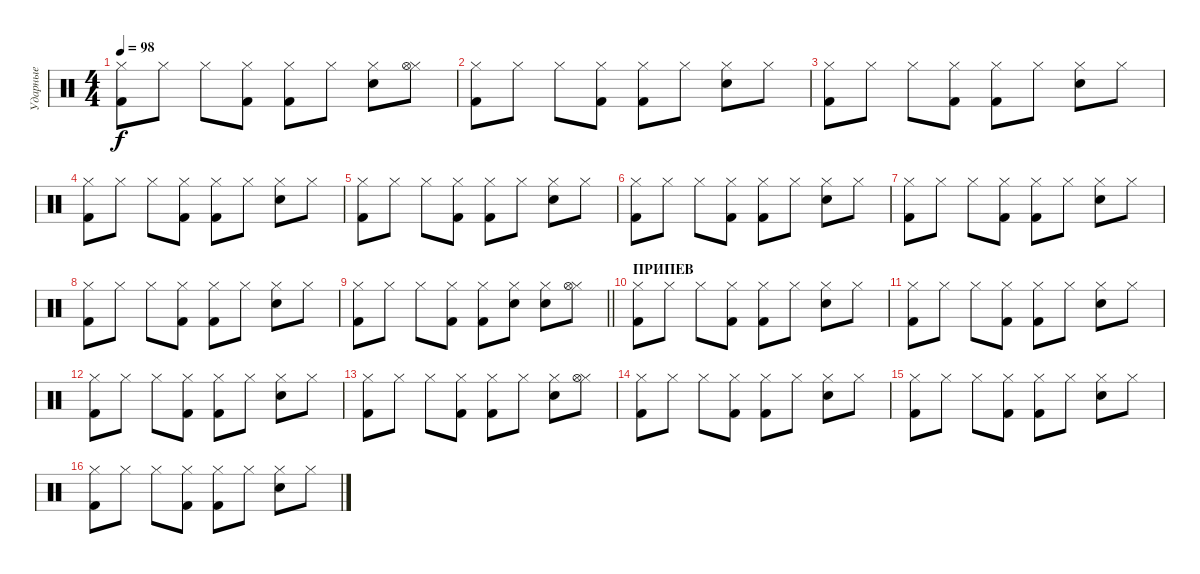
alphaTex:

\track ("Ударные" "Ударные") {instrument percussion}
\staff {score}
\articulation defaults
\ts (4 4)
\tempo 98
\clef neutral
\ks c
("Hi-Hat (closed)" "Kick (hit) 2").8{dy f} "Hi-Hat (closed)".8 "Hi-Hat (closed)".8 ("Hi-Hat (closed)" "Kick (hit) 2").8 ("Hi-Hat (closed)" "Kick (hit) 2").8 "Hi-Hat (closed)".8 ("Hi-Hat (closed)" "Snare (hit) 2").8 ("Hi-Hat (closed)" "Hi-Hat (open)").8 |
("Hi-Hat (closed)" "Kick (hit) 2").8 "Hi-Hat (closed)".8 "Hi-Hat (closed)".8 ("Hi-Hat (closed)" "Kick (hit) 2").8 ("Hi-Hat (closed)" "Kick (hit) 2").8 "Hi-Hat (closed)".8 ("Hi-Hat (closed)" "Snare (hit) 2").8 "Hi-Hat (closed)".8 |
("Hi-Hat (closed)" "Kick (hit) 2").8 "Hi-Hat (closed)".8 "Hi-Hat (closed)".8 ("Hi-Hat (closed)" "Kick (hit) 2").8 ("Hi-Hat (closed)" "Kick (hit) 2").8 "Hi-Hat (closed)".8 ("Hi-Hat (closed)" "Snare (hit) 2").8 "Hi-Hat (closed)".8 |
("Hi-Hat (closed)" "Kick (hit) 2").8 "Hi-Hat (closed)".8 "Hi-Hat (closed)".8 ("Hi-Hat (closed)" "Kick (hit) 2").8 ("Hi-Hat (closed)" "Kick (hit) 2").8 "Hi-Hat (closed)".8 ("Hi-Hat (closed)" "Snare (hit) 2").8 "Hi-Hat (closed)".8 |
("Hi-Hat (closed)" "Kick (hit) 2").8 "Hi-Hat (closed)".8 "Hi-Hat (closed)".8 ("Hi-Hat (closed)" "Kick (hit) 2").8 ("Hi-Hat (closed)" "Kick (hit) 2").8 "Hi-Hat (closed)".8 ("Hi-Hat (closed)" "Snare (hit) 2").8 "Hi-Hat (closed)".8 |
("Hi-Hat (closed)" "Kick (hit) 2").8 "Hi-Hat (closed)".8 "Hi-Hat (closed)".8 ("Hi-Hat (closed)" "Kick (hit) 2").8 ("Hi-Hat (closed)" "Kick (hit) 2").8 "Hi-Hat (closed)".8 ("Hi-Hat (closed)" "Snare (hit) 2").8 "Hi-Hat (closed)".8 |
("Hi-Hat (closed)" "Kick (hit) 2").8 "Hi-Hat (closed)".8 "Hi-Hat (closed)".8 ("Hi-Hat (closed)" "Kick (hit) 2").8 ("Hi-Hat (closed)" "Kick (hit) 2").8 "Hi-Hat (closed)".8 ("Hi-Hat (closed)" "Snare (hit) 2").8 "Hi-Hat (closed)".8 |
("Hi-Hat (closed)" "Kick (hit) 2").8 "Hi-Hat (closed)".8 "Hi-Hat (closed)".8 ("Hi-Hat (closed)" "Kick (hit) 2").8 ("Hi-Hat (closed)" "Kick (hit) 2").8 "Hi-Hat (closed)".8 ("Hi-Hat (closed)" "Snare (hit) 2").8 "Hi-Hat (closed)".8 |
\barLineRight lightlight
("Hi-Hat (closed)" "Kick (hit) 2").8 "Hi-Hat (closed)".8 "Hi-Hat (closed)".8 ("Hi-Hat (closed)" "Kick (hit) 2").8 ("Hi-Hat (closed)" "Kick (hit) 2").8 ("Hi-Hat (closed)" "Snare (hit) 2").8 ("Hi-Hat (closed)" "Snare (hit) 2").8 ("Hi-Hat (closed)" "Hi-Hat (open)").8 |
\section ("" "ПРИПЕВ")
("Hi-Hat (closed)" "Kick (hit) 2").8 "Hi-Hat (closed)".8 "Hi-Hat (closed)".8 ("Hi-Hat (closed)" "Kick (hit) 2").8 ("Hi-Hat (closed)" "Kick (hit) 2").8 "Hi-Hat (closed)".8 ("Hi-Hat (closed)" "Snare (hit) 2").8 "Hi-Hat (closed)".8 |
("Hi-Hat (closed)" "Kick (hit) 2").8 "Hi-Hat (closed)".8 "Hi-Hat (closed)".8 ("Hi-Hat (closed)" "Kick (hit) 2").8 ("Hi-Hat (closed)" "Kick (hit) 2").8 "Hi-Hat (closed)".8 ("Hi-Hat (closed)" "Snare (hit) 2").8 "Hi-Hat (closed)".8 |
("Hi-Hat (closed)" "Kick (hit) 2").8 "Hi-Hat (closed)".8 "Hi-Hat (closed)".8 ("Hi-Hat (closed)" "Kick (hit) 2").8 ("Hi-Hat (closed)" "Kick (hit) 2").8 "Hi-Hat (closed)".8 ("Hi-Hat (closed)" "Snare (hit) 2").8 "Hi-Hat (closed)".8 |
("Hi-Hat (closed)" "Kick (hit) 2").8 "Hi-Hat (closed)".8 "Hi-Hat (closed)".8 ("Hi-Hat (closed)" "Kick (hit) 2").8 ("Hi-Hat (closed)" "Kick (hit) 2").8 "Hi-Hat (closed)".8 ("Hi-Hat (closed)" "Snare (hit) 2").8 ("Hi-Hat (closed)" "Hi-Hat (open)").8 |
("Hi-Hat (closed)" "Kick (hit) 2").8 "Hi-Hat (closed)".8 "Hi-Hat (closed)".8 ("Hi-Hat (closed)" "Kick (hit) 2").8 ("Hi-Hat (closed)" "Kick (hit) 2").8 "Hi-Hat (closed)".8 ("Hi-Hat (closed)" "Snare (hit) 2").8 "Hi-Hat (closed)".8 |
("Hi-Hat (closed)" "Kick (hit) 2").8 "Hi-Hat (closed)".8 "Hi-Hat (closed)".8 ("Hi-Hat (closed)" "Kick (hit) 2").8 ("Hi-Hat (closed)" "Kick (hit) 2").8 "Hi-Hat (closed)".8 ("Hi-Hat (closed)" "Snare (hit) 2").8 "Hi-Hat (closed)".8 |
("Hi-Hat (closed)" "Kick (hit) 2").8 "Hi-Hat (closed)".8 "Hi-Hat (closed)".8 ("Hi-Hat (closed)" "Kick (hit) 2").8 ("Hi-Hat (closed)" "Kick (hit) 2").8 "Hi-Hat (closed)".8 ("Hi-Hat (closed)" "Snare (hit) 2").8 "Hi-Hat (closed)".8
